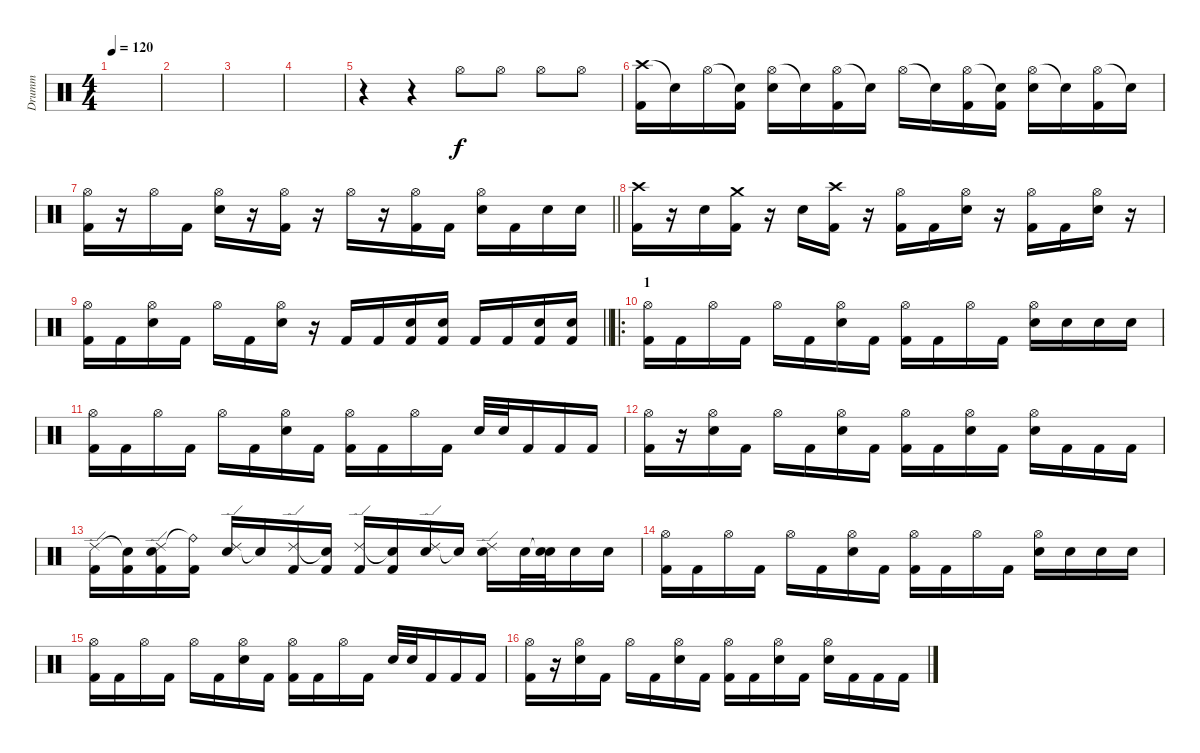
\track ("Drumm" "Drumm") {instrument percussion}
\staff {score}
\articulation defaults
\ts (4 4)
\tempo 120
\clef neutral
\ks c
|
|
|
|
r.4 r.4 "Hi-Hat (open)".8 "Hi-Hat (open)".8 "Hi-Hat (open)".8 "Hi-Hat (open)".8 |
("Crash high (hit)" "Kick (hit) 2").16 "Snare (hit)"{t}.16 "Hi-Hat (open)".16 ("Snare (hit)"{t} "Kick (hit) 2").16 ("Hi-Hat (open)" "Electric Snare (hit)").16 "Snare (hit)"{t}.16 ("Hi-Hat (open)" "Kick (hit) 2").16 "Snare (hit)"{t}.16 "Hi-Hat (open)".16 "Snare (hit)"{t}.16 ("Hi-Hat (open)" "Kick (hit) 2").16 ("Snare (hit)"{t} "Kick (hit) 2").16 ("Hi-Hat (open)" "Electric Snare (hit)").16 "Snare (hit)"{t}.16 ("Hi-Hat (open)" "Kick (hit) 2").16 "Snare (hit)"{t}.16 |
\barLineRight lightlight
("Hi-Hat (open)" "Kick (hit) 2").16 r.16 "Hi-Hat (open)".16 "Kick (hit) 2".16 ("Hi-Hat (open)" "Electric Snare (hit)").16 r.16 ("Hi-Hat (open)" "Kick (hit) 2").16 r.16 "Hi-Hat (open)".16 r.16 ("Hi-Hat (open)" "Kick (hit) 2").16 "Kick (hit) 2".16 ("Hi-Hat (open)" "Electric Snare (hit)").16 "Kick (hit) 2".16 "Electric Snare (hit)".16 "Electric Snare (hit)".16 |
("Crash high (hit)" "Kick (hit) 2").16 r.16 "Electric Snare (hit)".16 ("Crash medium (hit)" "Kick (hit) 2").16 r.16 "Electric Snare (hit)".16 ("Crash high (hit)" "Kick (hit) 2").16 r.16 ("Hi-Hat (open)" "Kick (hit) 2").16 "Kick (hit) 2".16 ("Hi-Hat (open)" "Electric Snare (hit)").16 r.16 ("Hi-Hat (open)" "Kick (hit) 2").16 "Kick (hit) 2".16 ("Hi-Hat (open)" "Electric Snare (hit)").16 r.16 |
\barLineRight lightlight
("Hi-Hat (open)" "Kick (hit) 2").16 "Kick (hit) 2".16 ("Hi-Hat (open)" "Electric Snare (hit)").16 "Kick (hit) 2".16 "Hi-Hat (open)".16 "Kick (hit) 2".16 ("Hi-Hat (open)" "Electric Snare (hit)").16 r.16 "Kick (hit) 2".16 "Kick (hit) 2".16 ("Electric Snare (hit)" "Kick (hit) 2").16 ("Electric Snare (hit)" "Kick (hit) 2").16 "Kick (hit) 2".16 "Kick (hit) 2".16 ("Electric Snare (hit)" "Kick (hit) 2").16 ("Electric Snare (hit)" "Kick (hit) 2").16 |
\ro
\section ("" "1")
("Hi-Hat (open)" "Kick (hit) 2").16 "Kick (hit) 2".16 "Hi-Hat (open)".16 "Kick (hit) 2".16 "Hi-Hat (open)".16 "Kick (hit) 2".16 ("Hi-Hat (open)" "Electric Snare (hit)").16 "Kick (hit) 2".16 ("Hi-Hat (open)" "Kick (hit) 2").16 "Kick (hit) 2".16 "Hi-Hat (open)".16 "Kick (hit) 2".16 ("Hi-Hat (open)" "Electric Snare (hit)").16 "Electric Snare (hit)".16 "Electric Snare (hit)".16 "Electric Snare (hit)".16 |
("Hi-Hat (open)" "Kick (hit) 2").16 "Kick (hit) 2".16 "Hi-Hat (open)".16 "Kick (hit) 2".16 "Hi-Hat (open)".16 "Kick (hit) 2".16 ("Hi-Hat (open)" "Electric Snare (hit)").16 "Kick (hit) 2".16 ("Hi-Hat (open)" "Kick (hit) 2").16 "Kick (hit) 2".16 "Hi-Hat (open)".16 "Kick (hit) 2".16 "Electric Snare (hit)".32 "Electric Snare (hit)".32 "Kick (hit) 2".16 "Kick (hit) 2".16 "Kick (hit) 2".16 |
("Hi-Hat (open)" "Kick (hit) 2").16 r.16 ("Hi-Hat (open)" "Electric Snare (hit)").16 "Kick (hit) 2".16 "Hi-Hat (open)".16 "Kick (hit) 2".16 ("Hi-Hat (open)" "Electric Snare (hit)").16 "Kick (hit) 2".16 ("Hi-Hat (open)" "Kick (hit) 2").16 "Kick (hit) 2".16 ("Hi-Hat (open)" "Electric Snare (hit)").16 "Kick (hit) 2".16 ("Hi-Hat (open)" "Electric Snare (hit)").16 "Kick (hit) 2".16 "Kick (hit) 2".16 "Kick (hit) 2".16 |
("Ride (edge) 2" "Kick (hit) 2").16 ("Snare (hit)"{t} "Kick (hit) 2").16 ("Ride (edge) 2" "Electric Snare (hit)" "Kick (hit) 2").16 ("Ride (bell)"{t} "Kick (hit) 2").16 ("Ride (edge) 2" "Electric Snare (hit)").16 "Snare (hit)"{t}.16 ("Ride (edge) 2" "Kick (hit) 2").16 ("Snare (hit)"{t} "Kick (hit) 2").16 ("Ride (edge) 2" "Kick (hit) 2").16 ("Snare (hit)"{t} "Kick (hit) 2").16 ("Ride (edge) 2" "Electric Snare (hit)").16 "Snare (hit)"{t}.16 ("Ride (edge) 2" "Electric Snare (hit)").16 "Electric Snare (hit)".32 ("Snare (hit)"{t} "Electric Snare (hit)").32 "Electric Snare (hit)".16 "Electric Snare (hit)".16 |
("Hi-Hat (open)" "Kick (hit) 2").16 "Kick (hit) 2".16 "Hi-Hat (open)".16 "Kick (hit) 2".16 "Hi-Hat (open)".16 "Kick (hit) 2".16 ("Hi-Hat (open)" "Electric Snare (hit)").16 "Kick (hit) 2".16 ("Hi-Hat (open)" "Kick (hit) 2").16 "Kick (hit) 2".16 "Hi-Hat (open)".16 "Kick (hit) 2".16 ("Hi-Hat (open)" "Electric Snare (hit)").16 "Electric Snare (hit)".16 "Electric Snare (hit)".16 "Electric Snare (hit)".16 |
("Hi-Hat (open)" "Kick (hit) 2").16 "Kick (hit) 2".16 "Hi-Hat (open)".16 "Kick (hit) 2".16 "Hi-Hat (open)".16 "Kick (hit) 2".16 ("Hi-Hat (open)" "Electric Snare (hit)").16 "Kick (hit) 2".16 ("Hi-Hat (open)" "Kick (hit) 2").16 "Kick (hit) 2".16 "Hi-Hat (open)".16 "Kick (hit) 2".16 "Electric Snare (hit)".32 "Electric Snare (hit)".32 "Kick (hit) 2".16 "Kick (hit) 2".16 "Kick (hit) 2".16 |
("Hi-Hat (open)" "Kick (hit) 2").16 r.16 ("Hi-Hat (open)" "Electric Snare (hit)").16 "Kick (hit) 2".16 "Hi-Hat (open)".16 "Kick (hit) 2".16 ("Hi-Hat (open)" "Electric Snare (hit)").16 "Kick (hit) 2".16 ("Hi-Hat (open)" "Kick (hit) 2").16 "Kick (hit) 2".16 ("Hi-Hat (open)" "Electric Snare (hit)").16 "Kick (hit) 2".16 ("Hi-Hat (open)" "Electric Snare (hit)").16 "Kick (hit) 2".16 "Kick (hit) 2".16 "Kick (hit) 2".16
